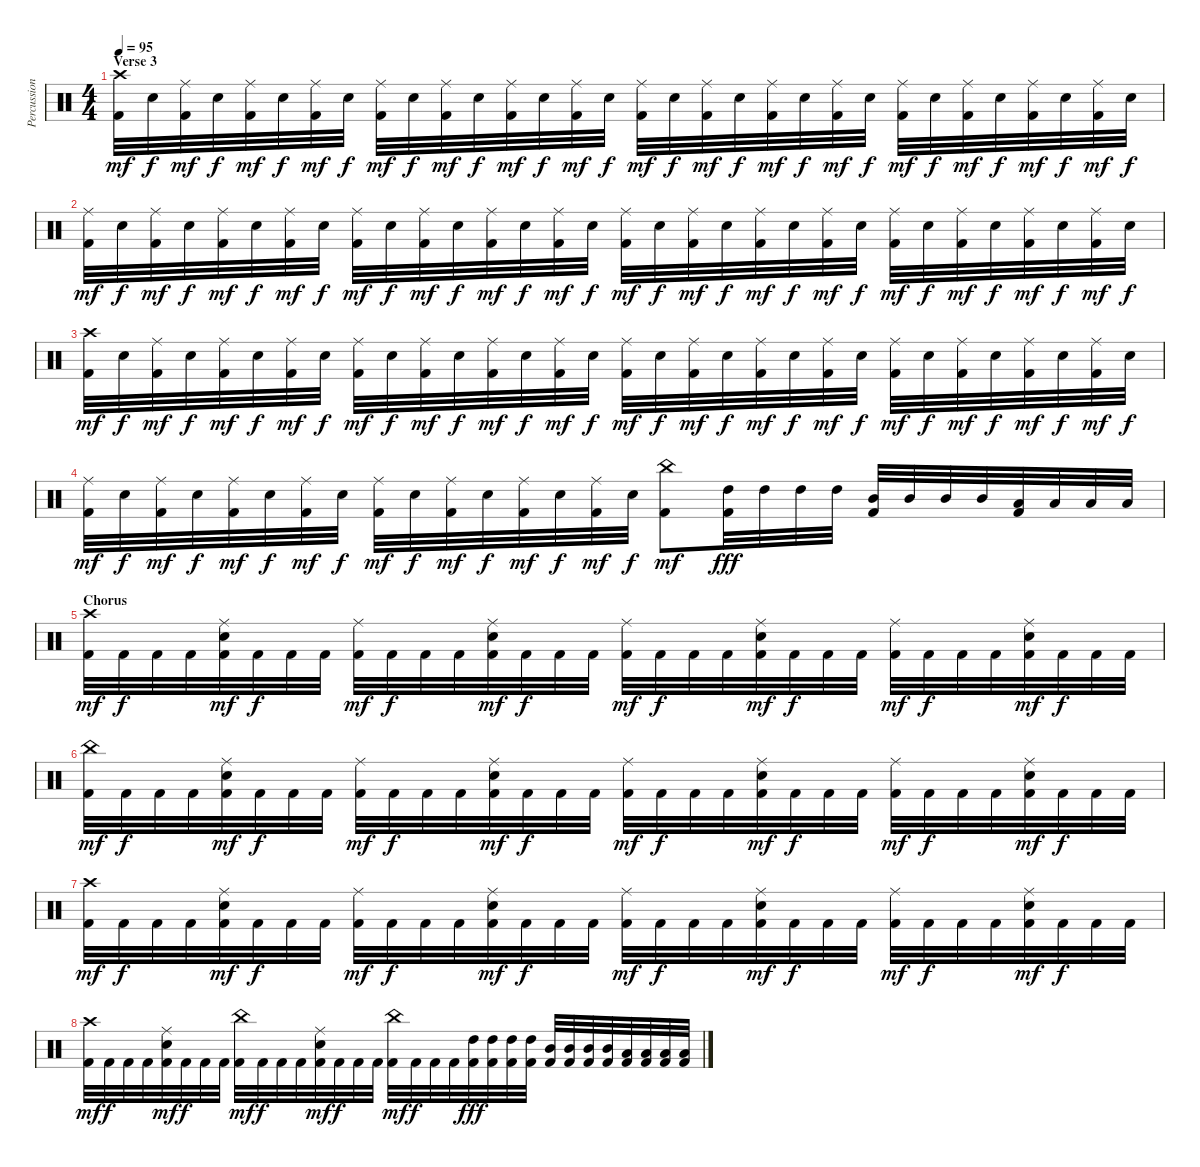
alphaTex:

\track ("Percussion" "Percussion") {instrument percussion}
\staff {score}
\articulation defaults
\ts (4 4)
\section ("" "Verse 3")
\tempo 95
\clef neutral
\ks c
("Crash high (hit)" "Kick (hit) 2").32{dy mf} "Electric Snare (hit)".32{dy f} ("Ride (middle)" "Kick (hit) 2").32{dy mf} "Electric Snare (hit)".32{dy f} ("Ride (middle)" "Kick (hit) 2").32{dy mf} "Electric Snare (hit)".32{dy f} ("Ride (middle)" "Kick (hit) 2").32{dy mf} "Electric Snare (hit)".32{dy f} ("Ride (middle)" "Kick (hit) 2").32{dy mf} "Electric Snare (hit)".32{dy f} ("Ride (middle)" "Kick (hit) 2").32{dy mf} "Electric Snare (hit)".32{dy f} ("Ride (middle)" "Kick (hit) 2").32{dy mf} "Electric Snare (hit)".32{dy f} ("Ride (middle)" "Kick (hit) 2").32{dy mf} "Electric Snare (hit)".32{dy f} ("Ride (middle)" "Kick (hit) 2").32{dy mf} "Electric Snare (hit)".32{dy f} ("Ride (middle)" "Kick (hit) 2").32{dy mf} "Electric Snare (hit)".32{dy f} ("Ride (middle)" "Kick (hit) 2").32{dy mf} "Electric Snare (hit)".32{dy f} ("Ride (middle)" "Kick (hit) 2").32{dy mf} "Electric Snare (hit)".32{dy f} ("Ride (middle)" "Kick (hit) 2").32{dy mf} "Electric Snare (hit)".32{dy f} ("Ride (middle)" "Kick (hit) 2").32{dy mf} "Electric Snare (hit)".32{dy f} ("Ride (middle)" "Kick (hit) 2").32{dy mf} "Electric Snare (hit)".32{dy f} ("Ride (middle)" "Kick (hit) 2").32{dy mf} "Electric Snare (hit)".32{dy f} |
("Ride (middle)" "Kick (hit) 2").32{dy mf} "Electric Snare (hit)".32{dy f} ("Ride (middle)" "Kick (hit) 2").32{dy mf} "Electric Snare (hit)".32{dy f} ("Ride (middle)" "Kick (hit) 2").32{dy mf} "Electric Snare (hit)".32{dy f} ("Ride (middle)" "Kick (hit) 2").32{dy mf} "Electric Snare (hit)".32{dy f} ("Ride (middle)" "Kick (hit) 2").32{dy mf} "Electric Snare (hit)".32{dy f} ("Ride (middle)" "Kick (hit) 2").32{dy mf} "Electric Snare (hit)".32{dy f} ("Ride (middle)" "Kick (hit) 2").32{dy mf} "Electric Snare (hit)".32{dy f} ("Ride (middle)" "Kick (hit) 2").32{dy mf} "Electric Snare (hit)".32{dy f} ("Ride (middle)" "Kick (hit) 2").32{dy mf} "Electric Snare (hit)".32{dy f} ("Ride (middle)" "Kick (hit) 2").32{dy mf} "Electric Snare (hit)".32{dy f} ("Ride (middle)" "Kick (hit) 2").32{dy mf} "Electric Snare (hit)".32{dy f} ("Ride (middle)" "Kick (hit) 2").32{dy mf} "Electric Snare (hit)".32{dy f} ("Ride (middle)" "Kick (hit) 2").32{dy mf} "Electric Snare (hit)".32{dy f} ("Ride (middle)" "Kick (hit) 2").32{dy mf} "Electric Snare (hit)".32{dy f} ("Ride (middle)" "Kick (hit) 2").32{dy mf} "Electric Snare (hit)".32{dy f} ("Ride (middle)" "Kick (hit) 2").32{dy mf} "Electric Snare (hit)".32{dy f} |
("Crash high (hit)" "Kick (hit) 2").32{dy mf} "Electric Snare (hit)".32{dy f} ("Ride (middle)" "Kick (hit) 2").32{dy mf} "Electric Snare (hit)".32{dy f} ("Ride (middle)" "Kick (hit) 2").32{dy mf} "Electric Snare (hit)".32{dy f} ("Ride (middle)" "Kick (hit) 2").32{dy mf} "Electric Snare (hit)".32{dy f} ("Ride (middle)" "Kick (hit) 2").32{dy mf} "Electric Snare (hit)".32{dy f} ("Ride (middle)" "Kick (hit) 2").32{dy mf} "Electric Snare (hit)".32{dy f} ("Ride (middle)" "Kick (hit) 2").32{dy mf} "Electric Snare (hit)".32{dy f} ("Ride (middle)" "Kick (hit) 2").32{dy mf} "Electric Snare (hit)".32{dy f} ("Ride (middle)" "Kick (hit) 2").32{dy mf} "Electric Snare (hit)".32{dy f} ("Ride (middle)" "Kick (hit) 2").32{dy mf} "Electric Snare (hit)".32{dy f} ("Ride (middle)" "Kick (hit) 2").32{dy mf} "Electric Snare (hit)".32{dy f} ("Ride (middle)" "Kick (hit) 2").32{dy mf} "Electric Snare (hit)".32{dy f} ("Ride (middle)" "Kick (hit) 2").32{dy mf} "Electric Snare (hit)".32{dy f} ("Ride (middle)" "Kick (hit) 2").32{dy mf} "Electric Snare (hit)".32{dy f} ("Ride (middle)" "Kick (hit) 2").32{dy mf} "Electric Snare (hit)".32{dy f} ("Ride (middle)" "Kick (hit) 2").32{dy mf} "Electric Snare (hit)".32{dy f} |
("Ride (middle)" "Kick (hit) 2").32{dy mf} "Electric Snare (hit)".32{dy f} ("Ride (middle)" "Kick (hit) 2").32{dy mf} "Electric Snare (hit)".32{dy f} ("Ride (middle)" "Kick (hit) 2").32{dy mf} "Electric Snare (hit)".32{dy f} ("Ride (middle)" "Kick (hit) 2").32{dy mf} "Electric Snare (hit)".32{dy f} ("Ride (middle)" "Kick (hit) 2").32{dy mf} "Electric Snare (hit)".32{dy f} ("Ride (middle)" "Kick (hit) 2").32{dy mf} "Electric Snare (hit)".32{dy f} ("Ride (middle)" "Kick (hit) 2").32{dy mf} "Electric Snare (hit)".32{dy f} ("Ride (middle)" "Kick (hit) 2").32{dy mf} "Electric Snare (hit)".32{dy f} ("China (hit)" "Kick (hit) 2").8{dy mf} ("High Tom (hit)" "Kick (hit) 2").32{dy fff} "High Tom (hit)".32 "High Tom (hit)".32 "High Tom (hit)".32 ("Mid Tom (hit)" "Kick (hit) 2").32 "Mid Tom (hit)".32 "Mid Tom (hit)".32 "Mid Tom (hit)".32 ("Low Tom (hit)" "Kick (hit) 2").32 "Low Tom (hit)".32 "Low Tom (hit)".32 "Low Tom (hit)".32 |
\section ("" "Chorus")
("Crash high (hit)" "Kick (hit) 2").32{dy mf} "Kick (hit) 2".32{dy f} "Kick (hit) 2".32 "Kick (hit) 2".32 ("Ride (middle)" "Electric Snare (hit)" "Kick (hit) 2").32{dy mf} "Kick (hit) 2".32{dy f} "Kick (hit) 2".32 "Kick (hit) 2".32 ("Ride (middle)" "Kick (hit) 2").32{dy mf} "Kick (hit) 2".32{dy f} "Kick (hit) 2".32 "Kick (hit) 2".32 ("Ride (middle)" "Electric Snare (hit)" "Kick (hit) 2").32{dy mf} "Kick (hit) 2".32{dy f} "Kick (hit) 2".32 "Kick (hit) 2".32 ("Ride (middle)" "Kick (hit) 2").32{dy mf} "Kick (hit) 2".32{dy f} "Kick (hit) 2".32 "Kick (hit) 2".32 ("Ride (middle)" "Electric Snare (hit)" "Kick (hit) 2").32{dy mf} "Kick (hit) 2".32{dy f} "Kick (hit) 2".32 "Kick (hit) 2".32 ("Ride (middle)" "Kick (hit) 2").32{dy mf} "Kick (hit) 2".32{dy f} "Kick (hit) 2".32 "Kick (hit) 2".32 ("Ride (middle)" "Electric Snare (hit)" "Kick (hit) 2").32{dy mf} "Kick (hit) 2".32{dy f} "Kick (hit) 2".32 "Kick (hit) 2".32 |
("China (hit)" "Kick (hit) 2").32{dy mf} "Kick (hit) 2".32{dy f} "Kick (hit) 2".32 "Kick (hit) 2".32 ("Ride (middle)" "Electric Snare (hit)" "Kick (hit) 2").32{dy mf} "Kick (hit) 2".32{dy f} "Kick (hit) 2".32 "Kick (hit) 2".32 ("Ride (middle)" "Kick (hit) 2").32{dy mf} "Kick (hit) 2".32{dy f} "Kick (hit) 2".32 "Kick (hit) 2".32 ("Ride (middle)" "Electric Snare (hit)" "Kick (hit) 2").32{dy mf} "Kick (hit) 2".32{dy f} "Kick (hit) 2".32 "Kick (hit) 2".32 ("Ride (middle)" "Kick (hit) 2").32{dy mf} "Kick (hit) 2".32{dy f} "Kick (hit) 2".32 "Kick (hit) 2".32 ("Ride (middle)" "Electric Snare (hit)" "Kick (hit) 2").32{dy mf} "Kick (hit) 2".32{dy f} "Kick (hit) 2".32 "Kick (hit) 2".32 ("Ride (middle)" "Kick (hit) 2").32{dy mf} "Kick (hit) 2".32{dy f} "Kick (hit) 2".32 "Kick (hit) 2".32 ("Ride (middle)" "Electric Snare (hit)" "Kick (hit) 2").32{dy mf} "Kick (hit) 2".32{dy f} "Kick (hit) 2".32 "Kick (hit) 2".32 |
("Crash high (hit)" "Kick (hit) 2").32{dy mf} "Kick (hit) 2".32{dy f} "Kick (hit) 2".32 "Kick (hit) 2".32 ("Ride (middle)" "Electric Snare (hit)" "Kick (hit) 2").32{dy mf} "Kick (hit) 2".32{dy f} "Kick (hit) 2".32 "Kick (hit) 2".32 ("Ride (middle)" "Kick (hit) 2").32{dy mf} "Kick (hit) 2".32{dy f} "Kick (hit) 2".32 "Kick (hit) 2".32 ("Ride (middle)" "Electric Snare (hit)" "Kick (hit) 2").32{dy mf} "Kick (hit) 2".32{dy f} "Kick (hit) 2".32 "Kick (hit) 2".32 ("Ride (middle)" "Kick (hit) 2").32{dy mf} "Kick (hit) 2".32{dy f} "Kick (hit) 2".32 "Kick (hit) 2".32 ("Ride (middle)" "Electric Snare (hit)" "Kick (hit) 2").32{dy mf} "Kick (hit) 2".32{dy f} "Kick (hit) 2".32 "Kick (hit) 2".32 ("Ride (middle)" "Kick (hit) 2").32{dy mf} "Kick (hit) 2".32{dy f} "Kick (hit) 2".32 "Kick (hit) 2".32 ("Ride (middle)" "Electric Snare (hit)" "Kick (hit) 2").32{dy mf} "Kick (hit) 2".32{dy f} "Kick (hit) 2".32 "Kick (hit) 2".32 |
("Crash high (hit)" "Kick (hit) 2").32{dy mf} "Kick (hit) 2".32{dy f} "Kick (hit) 2".32 "Kick (hit) 2".32 ("Ride (middle)" "Electric Snare (hit)" "Kick (hit) 2").32{dy mf} "Kick (hit) 2".32{dy f} "Kick (hit) 2".32 "Kick (hit) 2".32 ("China (hit)" "Kick (hit) 2").32{dy mf} "Kick (hit) 2".32{dy f} "Kick (hit) 2".32 "Kick (hit) 2".32 ("Ride (middle)" "Electric Snare (hit)" "Kick (hit) 2").32{dy mf} "Kick (hit) 2".32{dy f} "Kick (hit) 2".32 "Kick (hit) 2".32 ("China (hit)" "Kick (hit) 2").32{dy mf} "Kick (hit) 2".32{dy f} "Kick (hit) 2".32 "Kick (hit) 2".32 ("High Tom (hit)" "Kick (hit) 2").32{dy fff} ("High Tom (hit)" "Kick (hit) 2").32 ("High Tom (hit)" "Kick (hit) 2").32 ("High Tom (hit)" "Kick (hit) 2").32 ("Mid Tom (hit)" "Kick (hit) 2").32 ("Mid Tom (hit)" "Kick (hit) 2").32 ("Mid Tom (hit)" "Kick (hit) 2").32 ("Mid Tom (hit)" "Kick (hit) 2").32 ("Low Tom (hit)" "Kick (hit) 2").32 ("Low Tom (hit)" "Kick (hit) 2").32 ("Low Tom (hit)" "Kick (hit) 2").32 ("Low Tom (hit)" "Kick (hit) 2").32
